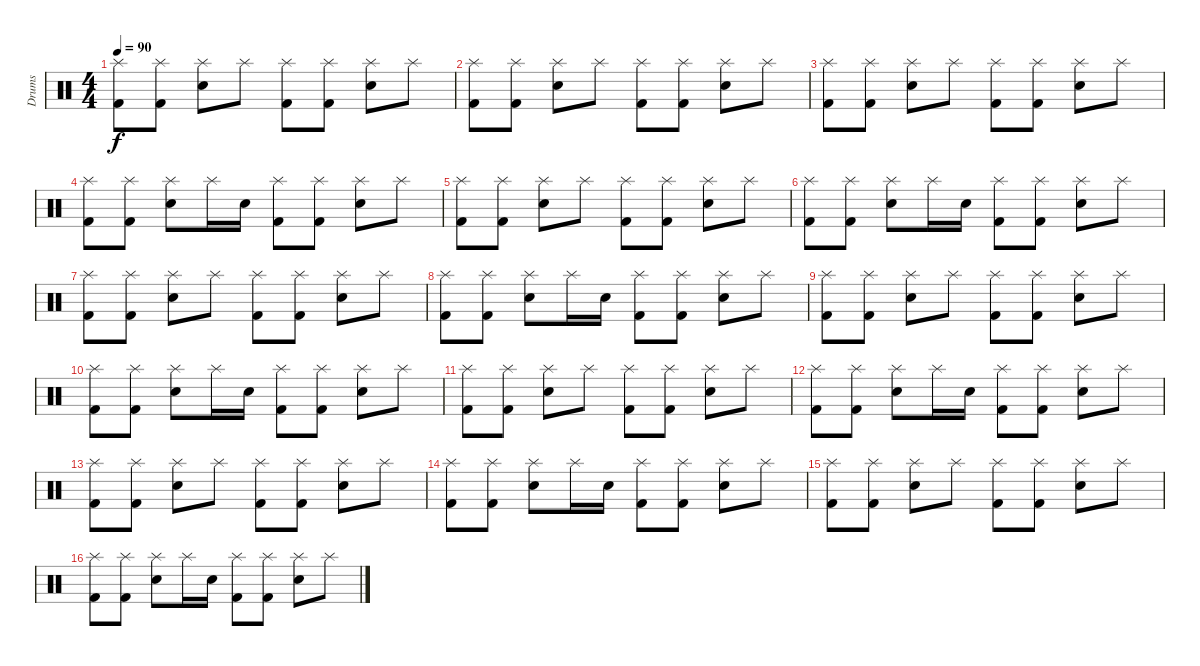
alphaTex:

\track ("Drums" "Drums") {instrument percussion}
\staff {score}
\articulation defaults
\ts (4 4)
\tempo 90
\clef neutral
\ks c
("Splash (hit)" "Kick (hit) 2").8{dy f} ("Splash (hit)" "Kick (hit) 2").8 ("Splash (hit)" "Snare (hit) 2").8 "Splash (hit)".8 ("Splash (hit)" "Kick (hit) 2").8 ("Splash (hit)" "Kick (hit) 2").8 ("Splash (hit)" "Snare (hit) 2").8 "Splash (hit)".8 |
("Splash (hit)" "Kick (hit) 2").8 ("Splash (hit)" "Kick (hit) 2").8 ("Splash (hit)" "Snare (hit) 2").8 "Splash (hit)".8 ("Splash (hit)" "Kick (hit) 2").8 ("Splash (hit)" "Kick (hit) 2").8 ("Splash (hit)" "Snare (hit) 2").8 "Splash (hit)".8 |
("Splash (hit)" "Kick (hit) 2").8 ("Splash (hit)" "Kick (hit) 2").8 ("Splash (hit)" "Snare (hit) 2").8 "Splash (hit)".8 ("Splash (hit)" "Kick (hit) 2").8 ("Splash (hit)" "Kick (hit) 2").8 ("Splash (hit)" "Snare (hit) 2").8 "Splash (hit)".8 |
("Splash (hit)" "Kick (hit) 2").8 ("Splash (hit)" "Kick (hit) 2").8 ("Splash (hit)" "Snare (hit) 2").8 "Splash (hit)".16 "Snare (hit) 2".16 ("Splash (hit)" "Kick (hit) 2").8 ("Splash (hit)" "Kick (hit) 2").8 ("Splash (hit)" "Snare (hit) 2").8 "Splash (hit)".8 |
("Splash (hit)" "Kick (hit) 2").8 ("Splash (hit)" "Kick (hit) 2").8 ("Splash (hit)" "Snare (hit) 2").8 "Splash (hit)".8 ("Splash (hit)" "Kick (hit) 2").8 ("Splash (hit)" "Kick (hit) 2").8 ("Splash (hit)" "Snare (hit) 2").8 "Splash (hit)".8 |
("Splash (hit)" "Kick (hit) 2").8 ("Splash (hit)" "Kick (hit) 2").8 ("Splash (hit)" "Snare (hit) 2").8 "Splash (hit)".16 "Snare (hit) 2".16 ("Splash (hit)" "Kick (hit) 2").8 ("Splash (hit)" "Kick (hit) 2").8 ("Splash (hit)" "Snare (hit) 2").8 "Splash (hit)".8 |
("Splash (hit)" "Kick (hit) 2").8 ("Splash (hit)" "Kick (hit) 2").8 ("Splash (hit)" "Snare (hit) 2").8 "Splash (hit)".8 ("Splash (hit)" "Kick (hit) 2").8 ("Splash (hit)" "Kick (hit) 2").8 ("Splash (hit)" "Snare (hit) 2").8 "Splash (hit)".8 |
("Splash (hit)" "Kick (hit) 2").8 ("Splash (hit)" "Kick (hit) 2").8 ("Splash (hit)" "Snare (hit) 2").8 "Splash (hit)".16 "Snare (hit) 2".16 ("Splash (hit)" "Kick (hit) 2").8 ("Splash (hit)" "Kick (hit) 2").8 ("Splash (hit)" "Snare (hit) 2").8 "Splash (hit)".8 |
("Splash (hit)" "Kick (hit) 2").8 ("Splash (hit)" "Kick (hit) 2").8 ("Splash (hit)" "Snare (hit) 2").8 "Splash (hit)".8 ("Splash (hit)" "Kick (hit) 2").8 ("Splash (hit)" "Kick (hit) 2").8 ("Splash (hit)" "Snare (hit) 2").8 "Splash (hit)".8 |
("Splash (hit)" "Kick (hit) 2").8 ("Splash (hit)" "Kick (hit) 2").8 ("Splash (hit)" "Snare (hit) 2").8 "Splash (hit)".16 "Snare (hit) 2".16 ("Splash (hit)" "Kick (hit) 2").8 ("Splash (hit)" "Kick (hit) 2").8 ("Splash (hit)" "Snare (hit) 2").8 "Splash (hit)".8 |
("Splash (hit)" "Kick (hit) 2").8 ("Splash (hit)" "Kick (hit) 2").8 ("Splash (hit)" "Snare (hit) 2").8 "Splash (hit)".8 ("Splash (hit)" "Kick (hit) 2").8 ("Splash (hit)" "Kick (hit) 2").8 ("Splash (hit)" "Snare (hit) 2").8 "Splash (hit)".8 |
("Splash (hit)" "Kick (hit) 2").8 ("Splash (hit)" "Kick (hit) 2").8 ("Splash (hit)" "Snare (hit) 2").8 "Splash (hit)".16 "Snare (hit) 2".16 ("Splash (hit)" "Kick (hit) 2").8 ("Splash (hit)" "Kick (hit) 2").8 ("Splash (hit)" "Snare (hit) 2").8 "Splash (hit)".8 |
("Splash (hit)" "Kick (hit) 2").8 ("Splash (hit)" "Kick (hit) 2").8 ("Splash (hit)" "Snare (hit) 2").8 "Splash (hit)".8 ("Splash (hit)" "Kick (hit) 2").8 ("Splash (hit)" "Kick (hit) 2").8 ("Splash (hit)" "Snare (hit) 2").8 "Splash (hit)".8 |
("Splash (hit)" "Kick (hit) 2").8 ("Splash (hit)" "Kick (hit) 2").8 ("Splash (hit)" "Snare (hit) 2").8 "Splash (hit)".16 "Snare (hit) 2".16 ("Splash (hit)" "Kick (hit) 2").8 ("Splash (hit)" "Kick (hit) 2").8 ("Splash (hit)" "Snare (hit) 2").8 "Splash (hit)".8 |
("Splash (hit)" "Kick (hit) 2").8 ("Splash (hit)" "Kick (hit) 2").8 ("Splash (hit)" "Snare (hit) 2").8 "Splash (hit)".8 ("Splash (hit)" "Kick (hit) 2").8 ("Splash (hit)" "Kick (hit) 2").8 ("Splash (hit)" "Snare (hit) 2").8 "Splash (hit)".8 |
("Splash (hit)" "Kick (hit) 2").8 ("Splash (hit)" "Kick (hit) 2").8 ("Splash (hit)" "Snare (hit) 2").8 "Splash (hit)".16 "Snare (hit) 2".16 ("Splash (hit)" "Kick (hit) 2").8 ("Splash (hit)" "Kick (hit) 2").8 ("Splash (hit)" "Snare (hit) 2").8 "Splash (hit)".8
